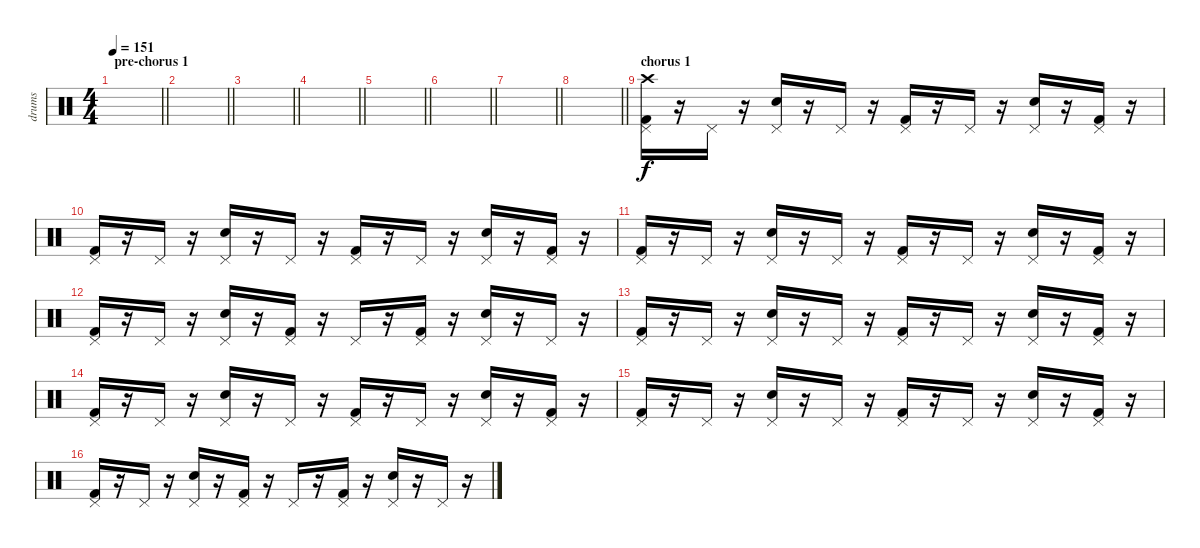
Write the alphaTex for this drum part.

\track ("drums" "drums") {instrument percussion}
\staff {score}
\articulation defaults
\ts (4 4)
\section ("" "pre-chorus 1")
\tempo 151
\clef neutral
\barLineRight lightlight
\ks c
|
\barLineRight lightlight
|
\barLineRight lightlight
|
\barLineRight lightlight
|
\barLineRight lightlight
|
\barLineRight lightlight
|
\barLineRight lightlight
|
\barLineRight lightlight
|
\section ("" "chorus 1")
("Kick (hit) 2" "Pedal Hi-Hat (hit)" "Crash high (hit)").16 r.16 "Pedal Hi-Hat (hit)".16 r.16 ("Electric Snare (hit)" "Pedal Hi-Hat (hit)").16 r.16 "Pedal Hi-Hat (hit)".16 r.16 ("Kick (hit) 2" "Pedal Hi-Hat (hit)").16 r.16 "Pedal Hi-Hat (hit)".16 r.16 ("Electric Snare (hit)" "Pedal Hi-Hat (hit)").16 r.16 ("Kick (hit) 2" "Pedal Hi-Hat (hit)").16 r.16 |
("Kick (hit) 2" "Pedal Hi-Hat (hit)").16 r.16 "Pedal Hi-Hat (hit)".16 r.16 ("Electric Snare (hit)" "Pedal Hi-Hat (hit)").16 r.16 "Pedal Hi-Hat (hit)".16 r.16 ("Kick (hit) 2" "Pedal Hi-Hat (hit)").16 r.16 "Pedal Hi-Hat (hit)".16 r.16 ("Electric Snare (hit)" "Pedal Hi-Hat (hit)").16 r.16 ("Kick (hit) 2" "Pedal Hi-Hat (hit)").16 r.16 |
("Kick (hit) 2" "Pedal Hi-Hat (hit)").16 r.16 "Pedal Hi-Hat (hit)".16 r.16 ("Electric Snare (hit)" "Pedal Hi-Hat (hit)").16 r.16 "Pedal Hi-Hat (hit)".16 r.16 ("Kick (hit) 2" "Pedal Hi-Hat (hit)").16 r.16 "Pedal Hi-Hat (hit)".16 r.16 ("Electric Snare (hit)" "Pedal Hi-Hat (hit)").16 r.16 ("Kick (hit) 2" "Pedal Hi-Hat (hit)").16 r.16 |
("Kick (hit) 2" "Pedal Hi-Hat (hit)").16 r.16 "Pedal Hi-Hat (hit)".16 r.16 ("Electric Snare (hit)" "Pedal Hi-Hat (hit)").16 r.16 ("Kick (hit) 2" "Pedal Hi-Hat (hit)").16 r.16 "Pedal Hi-Hat (hit)".16 r.16 ("Kick (hit) 2" "Pedal Hi-Hat (hit)").16 r.16 ("Electric Snare (hit)" "Pedal Hi-Hat (hit)").16 r.16 "Pedal Hi-Hat (hit)".16 r.16 |
("Kick (hit) 2" "Pedal Hi-Hat (hit)").16 r.16 "Pedal Hi-Hat (hit)".16 r.16 ("Electric Snare (hit)" "Pedal Hi-Hat (hit)").16 r.16 "Pedal Hi-Hat (hit)".16 r.16 ("Kick (hit) 2" "Pedal Hi-Hat (hit)").16 r.16 "Pedal Hi-Hat (hit)".16 r.16 ("Electric Snare (hit)" "Pedal Hi-Hat (hit)").16 r.16 ("Kick (hit) 2" "Pedal Hi-Hat (hit)").16 r.16 |
("Kick (hit) 2" "Pedal Hi-Hat (hit)").16 r.16 "Pedal Hi-Hat (hit)".16 r.16 ("Electric Snare (hit)" "Pedal Hi-Hat (hit)").16 r.16 "Pedal Hi-Hat (hit)".16 r.16 ("Kick (hit) 2" "Pedal Hi-Hat (hit)").16 r.16 "Pedal Hi-Hat (hit)".16 r.16 ("Electric Snare (hit)" "Pedal Hi-Hat (hit)").16 r.16 ("Kick (hit) 2" "Pedal Hi-Hat (hit)").16 r.16 |
("Kick (hit) 2" "Pedal Hi-Hat (hit)").16 r.16 "Pedal Hi-Hat (hit)".16 r.16 ("Electric Snare (hit)" "Pedal Hi-Hat (hit)").16 r.16 "Pedal Hi-Hat (hit)".16 r.16 ("Kick (hit) 2" "Pedal Hi-Hat (hit)").16 r.16 "Pedal Hi-Hat (hit)".16 r.16 ("Electric Snare (hit)" "Pedal Hi-Hat (hit)").16 r.16 ("Kick (hit) 2" "Pedal Hi-Hat (hit)").16 r.16 |
("Kick (hit) 2" "Pedal Hi-Hat (hit)").16 r.16 "Pedal Hi-Hat (hit)".16 r.16 ("Electric Snare (hit)" "Pedal Hi-Hat (hit)").16 r.16 ("Kick (hit) 2" "Pedal Hi-Hat (hit)").16 r.16 "Pedal Hi-Hat (hit)".16 r.16 ("Kick (hit) 2" "Pedal Hi-Hat (hit)").16 r.16 ("Electric Snare (hit)" "Pedal Hi-Hat (hit)").16 r.16 "Pedal Hi-Hat (hit)".16 r.16
